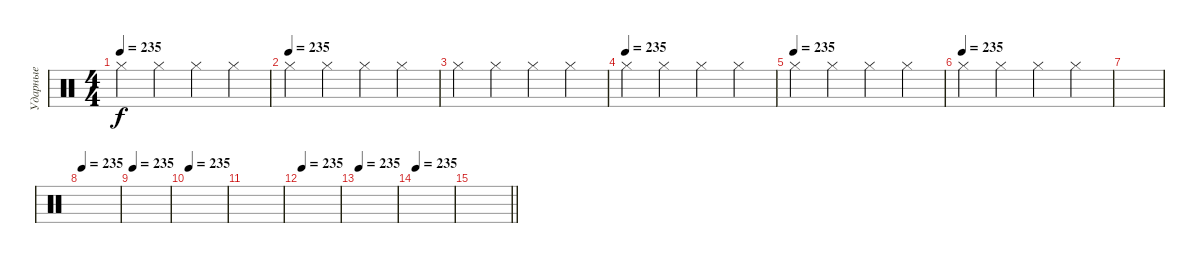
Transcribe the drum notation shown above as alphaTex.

\track ("Ударные" "Ударные") {instrument percussion}
\staff {score}
\articulation defaults
\ts (4 4)
\tempo 235
\clef neutral
\ks c "Hi-Hat (closed)".4{dy f} "Hi-Hat (closed)".4 "Hi-Hat (closed)".4 "Hi-Hat (closed)".4
|
\tempo (235)
"Hi-Hat (closed)".4 "Hi-Hat (closed)".4 "Hi-Hat (closed)".4 "Hi-Hat (closed)".4 |
"Hi-Hat (closed)".4 "Hi-Hat (closed)".4 "Hi-Hat (closed)".4 "Hi-Hat (closed)".4 |
\tempo (235)
"Hi-Hat (closed)".4 "Hi-Hat (closed)".4 "Hi-Hat (closed)".4 "Hi-Hat (closed)".4 |
\tempo (235)
"Hi-Hat (closed)".4 "Hi-Hat (closed)".4 "Hi-Hat (closed)".4 "Hi-Hat (closed)".4 |
\tempo (235)
"Hi-Hat (closed)".4 "Hi-Hat (closed)".4 "Hi-Hat (closed)".4 "Hi-Hat (closed)".4 |
|
\tempo 235
|
\tempo 235
|
\tempo 235
|
|
\tempo 235
|
\tempo 235
|
\tempo 235
|
\barLineRight lightlight
